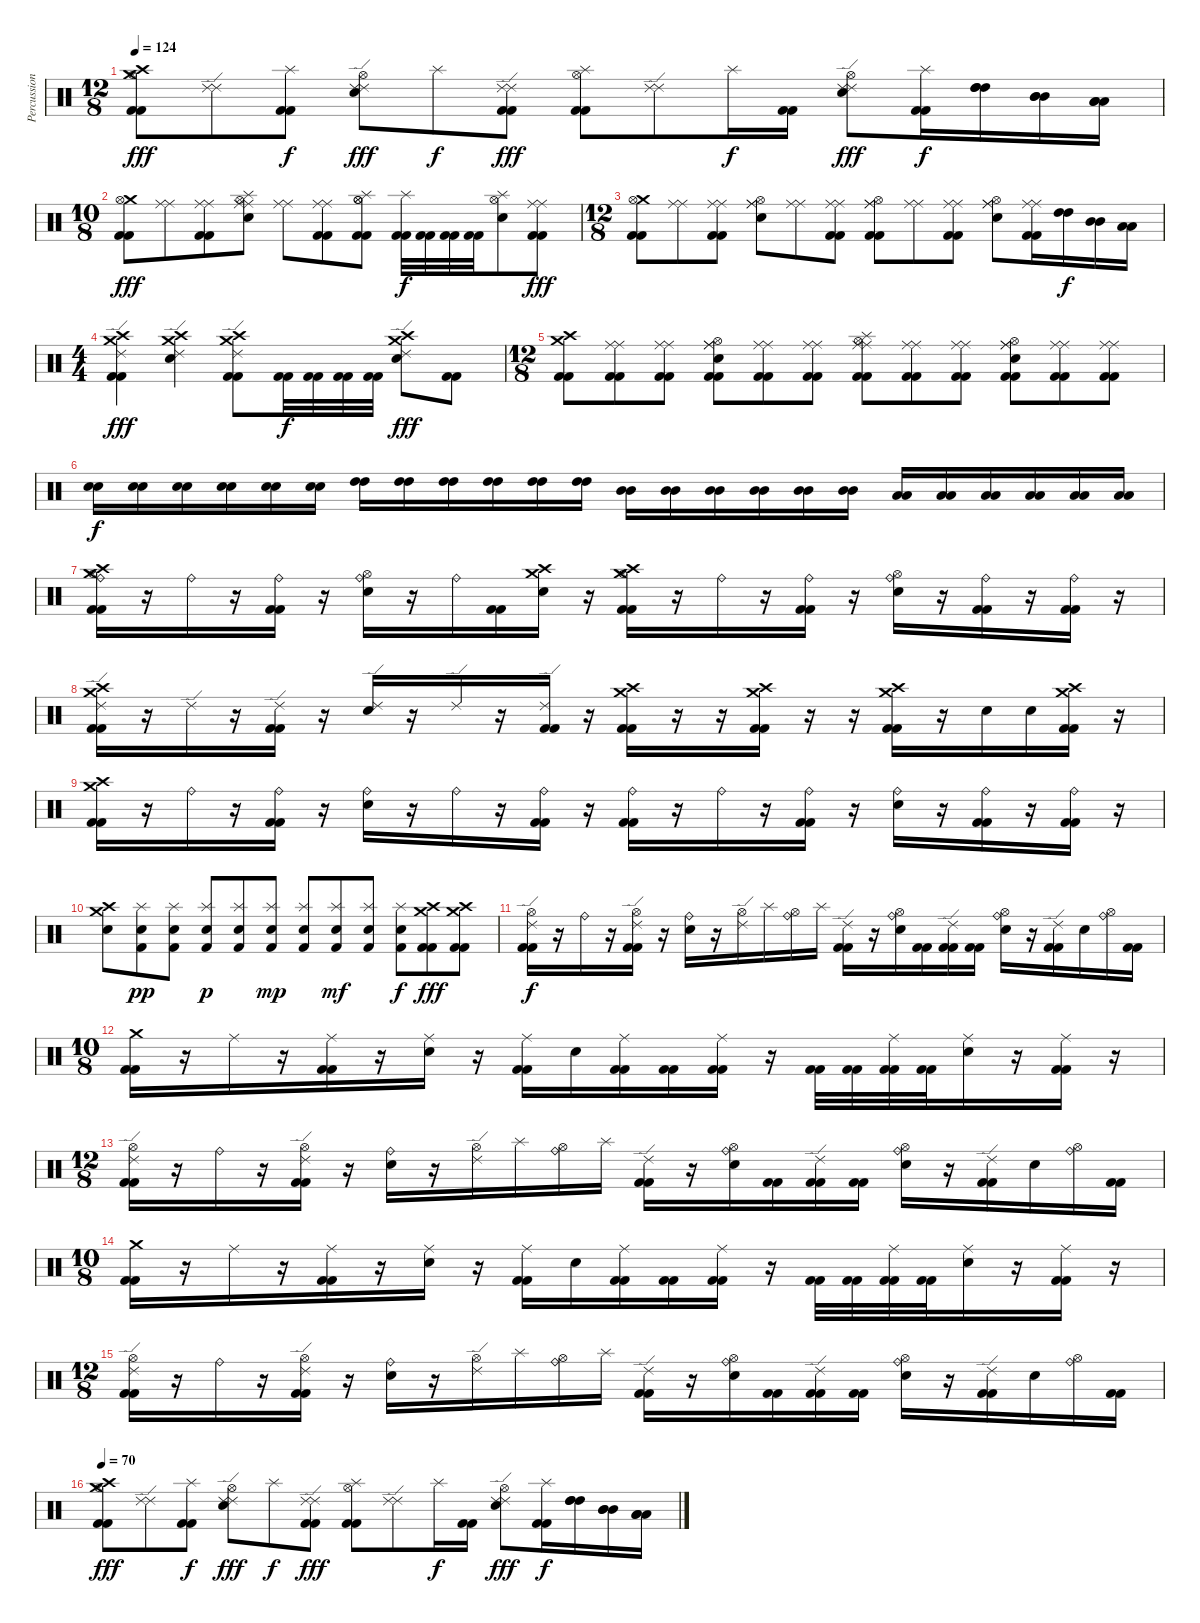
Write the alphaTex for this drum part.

\track ("Percussioni" "Percussion") {instrument percussion}
\staff {score}
\articulation defaults
\ts (12 8)
\tempo 124
\clef neutral
\ks c
("Crash medium (hit)" "Crash high (hit)" "Hi-Hat (open)" "Kick (hit) 2" "Kick (hit) 2").8{dy fff} ("Ride (edge) 2" "Ride (edge) 2").8 ("Splash (hit)" "Kick (hit) 2" "Kick (hit) 2").8{dy f} ("Ride (edge) 2" "Snare (hit) 2" "Hi-Hat (open)" "Ride (edge) 2").8{dy fff} "Splash (hit)".8{dy f} ("Ride (edge) 2" "Ride (edge) 2" "Kick (hit) 2" "Kick (hit) 2").8{dy fff} ("Splash (hit)" "Hi-Hat (open)" "Kick (hit) 2" "Kick (hit) 2").8 ("Ride (edge) 2" "Ride (edge) 2").8 "Splash (hit)".16{dy f} ("Kick (hit) 2" "Kick (hit) 2").16 ("Ride (edge) 2" "Hi-Hat (open)" "Ride (edge) 2" "Snare (hit) 2").8{dy fff} ("Splash (hit)" "Kick (hit) 2" "Kick (hit) 2").16{dy f} ("High Tom (hit)" "High Tom (hit)" "High Tom (hit)").16 ("Mid Tom (hit)" "Mid Tom (hit)" "Mid Tom (hit)").16 ("Low Tom (hit)" "Low Tom (hit)" "Low Tom (hit)").16 |
\ts (10 8)
("Crash medium (hit)" "Hi-Hat (open)" "Kick (hit) 2" "Kick (hit) 2").8{dy fff} ("Ride (middle)" "Ride (middle)").8 ("Ride (middle)" "Ride (middle)" "Kick (hit) 2" "Kick (hit) 2").8 ("Ride (middle)" "Splash (hit)" "Snare (hit) 2" "Hi-Hat (open)" "Ride (middle)").8 ("Ride (middle)" "Ride (middle)").8 ("Ride (middle)" "Ride (middle)" "Kick (hit) 2" "Kick (hit) 2").8 ("Splash (hit)" "Hi-Hat (open)" "Hi-Hat (open)" "Kick (hit) 2" "Kick (hit) 2").8 ("Splash (hit)" "Kick (hit) 2" "Kick (hit) 2").32{dy f} ("Kick (hit) 2" "Kick (hit) 2").32 ("Kick (hit) 2" "Kick (hit) 2").32 ("Kick (hit) 2" "Kick (hit) 2").32 ("Splash (hit)" "Hi-Hat (open)" "Snare (hit) 2").8 ("Ride (middle)" "Ride (middle)" "Kick (hit) 2" "Kick (hit) 2").8{dy fff} |
\ts (12 8)
("Crash medium (hit)" "Hi-Hat (open)" "Kick (hit) 2" "Kick (hit) 2").8 ("Ride (middle)" "Ride (middle)").8 ("Ride (middle)" "Ride (middle)" "Kick (hit) 2" "Kick (hit) 2").8 ("Ride (middle)" "Snare (hit) 2" "Hi-Hat (open)" "Ride (middle)").8 ("Ride (middle)" "Ride (middle)").8 ("Ride (middle)" "Ride (middle)" "Kick (hit) 2" "Kick (hit) 2").8 ("Ride (middle)" "Hi-Hat (open)" "Ride (middle)" "Kick (hit) 2" "Kick (hit) 2").8 ("Ride (middle)" "Ride (middle)").8 ("Ride (middle)" "Ride (middle)" "Kick (hit) 2" "Kick (hit) 2").8 ("Ride (middle)" "Snare (hit) 2" "Hi-Hat (open)" "Ride (middle)").8 ("Ride (middle)" "Ride (middle)" "Kick (hit) 2" "Kick (hit) 2").16 ("High Tom (hit)" "High Tom (hit)").16{dy f} ("Mid Tom (hit)" "Mid Tom (hit)").16 ("Low Tom (hit)" "Low Tom (hit)").16 |
\ts (4 4)
("Crash medium (hit)" "Ride (edge) 2" "Crash high (hit)" "Kick (hit) 2" "Kick (hit) 2").4{dy fff} ("Ride (edge) 2" "Snare (hit) 2" "Crash high (hit)" "Crash medium (hit)").4 ("Ride (edge) 2" "Crash medium (hit)" "Crash high (hit)" "Kick (hit) 2" "Kick (hit) 2").8 ("Kick (hit) 2" "Kick (hit) 2").32{dy f} ("Kick (hit) 2" "Kick (hit) 2").32 ("Kick (hit) 2" "Kick (hit) 2").32 ("Kick (hit) 2" "Kick (hit) 2").32 ("Ride (edge) 2" "Snare (hit) 2" "Crash high (hit)" "Crash medium (hit)").8{dy fff} ("Kick (hit) 2" "Kick (hit) 2").8 |
\ts (12 8)
("Crash medium (hit)" "Crash high (hit)" "Kick (hit) 2" "Kick (hit) 2").8 ("Ride (middle)" "Ride (middle)" "Kick (hit) 2" "Kick (hit) 2").8 ("Ride (middle)" "Ride (middle)" "Kick (hit) 2" "Kick (hit) 2").8 ("Ride (middle)" "Snare (hit) 2" "Hi-Hat (open)" "Ride (middle)" "Kick (hit) 2" "Kick (hit) 2").8 ("Ride (middle)" "Ride (middle)" "Kick (hit) 2" "Kick (hit) 2").8 ("Ride (middle)" "Ride (middle)" "Kick (hit) 2" "Kick (hit) 2").8 ("Ride (middle)" "Splash (hit)" "Hi-Hat (open)" "Ride (middle)" "Kick (hit) 2" "Kick (hit) 2").8 ("Ride (middle)" "Ride (middle)" "Kick (hit) 2" "Kick (hit) 2").8 ("Ride (middle)" "Ride (middle)" "Kick (hit) 2" "Kick (hit) 2").8 ("Ride (middle)" "Snare (hit) 2" "Hi-Hat (open)" "Ride (middle)" "Kick (hit) 2" "Kick (hit) 2").8 ("Ride (middle)" "Ride (middle)" "Kick (hit) 2" "Kick (hit) 2").8 ("Ride (middle)" "Ride (middle)" "Kick (hit) 2" "Kick (hit) 2").8 |
("Snare (hit) 2" "Snare (hit) 2").16{dy f} ("Snare (hit) 2" "Snare (hit) 2").16 ("Snare (hit) 2" "Snare (hit) 2").16 ("Snare (hit) 2" "Snare (hit) 2").16 ("Snare (hit) 2" "Snare (hit) 2").16 ("Snare (hit) 2" "Snare (hit) 2").16 ("High Tom (hit)" "High Tom (hit)").16 ("High Tom (hit)" "High Tom (hit)").16 ("High Tom (hit)" "High Tom (hit)").16 ("High Tom (hit)" "High Tom (hit)").16 ("High Tom (hit)" "High Tom (hit)").16 ("High Tom (hit)" "High Tom (hit)").16 ("Mid Tom (hit)" "Mid Tom (hit)").16 ("Mid Tom (hit)" "Mid Tom (hit)").16 ("Mid Tom (hit)" "Mid Tom (hit)").16 ("Mid Tom (hit)" "Mid Tom (hit)").16 ("Mid Tom (hit)" "Mid Tom (hit)").16 ("Mid Tom (hit)" "Mid Tom (hit)").16 ("Low Tom (hit)" "Low Tom (hit)").16 ("Low Tom (hit)" "Low Tom (hit)").16 ("Low Tom (hit)" "Low Tom (hit)").16 ("Low Tom (hit)" "Low Tom (hit)").16 ("Low Tom (hit)" "Low Tom (hit)").16 ("Low Tom (hit)" "Low Tom (hit)").16 |
("Crash medium (hit)" "Crash high (hit)" "Ride (bell)" "Hi-Hat (open)" "Kick (hit) 2" "Kick (hit) 2").16 r.16 "Ride (bell)".16 r.16 ("Ride (bell)" "Kick (hit) 2" "Kick (hit) 2").16 r.16 ("Ride (bell)" "Snare (hit) 2" "Hi-Hat (open)").16 r.16 "Ride (bell)".16 ("Kick (hit) 2" "Kick (hit) 2").16 ("Crash high (hit)" "Snare (hit) 2" "Crash medium (hit)").16 r.16 ("Crash high (hit)" "Crash medium (hit)" "Hi-Hat (open)" "Kick (hit) 2" "Kick (hit) 2").16 r.16 "Ride (bell)".16 r.16 ("Ride (bell)" "Kick (hit) 2" "Kick (hit) 2").16 r.16 ("Ride (bell)" "Snare (hit) 2" "Hi-Hat (open)").16 r.16 ("Ride (bell)" "Kick (hit) 2" "Kick (hit) 2").16 r.16 ("Ride (bell)" "Kick (hit) 2" "Kick (hit) 2").16 r.16 |
("Ride (edge) 2" "Crash medium (hit)" "Crash high (hit)" "Kick (hit) 2" "Kick (hit) 2").16 r.16 "Ride (edge) 2".16 r.16 ("Ride (edge) 2" "Kick (hit) 2" "Kick (hit) 2").16 r.16 ("Ride (edge) 2" "Snare (hit) 2").16 r.16 "Ride (edge) 2".16 r.16 ("Ride (edge) 2" "Kick (hit) 2" "Kick (hit) 2").16 r.16 ("Crash medium (hit)" "Crash high (hit)" "Kick (hit) 2" "Kick (hit) 2").16 r.16 r.16 ("Crash medium (hit)" "Crash high (hit)" "Kick (hit) 2" "Kick (hit) 2").16 r.16 r.16 ("Crash medium (hit)" "Crash high (hit)" "Kick (hit) 2" "Kick (hit) 2").16 r.16 "Snare (hit) 2".16 "Snare (hit) 2".16 ("Crash high (hit)" "Crash medium (hit)" "Kick (hit) 2" "Kick (hit) 2").16 r.16 |
("Crash high (hit)" "Crash medium (hit)" "Kick (hit) 2" "Kick (hit) 2").16 r.16 "Ride (bell)".16 r.16 ("Ride (bell)" "Kick (hit) 2" "Kick (hit) 2").16 r.16 ("Ride (bell)" "Snare (hit) 2").16 r.16 "Ride (bell)".16 r.16 ("Ride (bell)" "Kick (hit) 2" "Kick (hit) 2").16 r.16 ("Ride (bell)" "Kick (hit) 2" "Kick (hit) 2").16 r.16 "Ride (bell)".16 r.16 ("Ride (bell)" "Kick (hit) 2" "Kick (hit) 2").16 r.16 ("Ride (bell)" "Snare (hit) 2").16 r.16 ("Ride (bell)" "Kick (hit) 2" "Kick (hit) 2").16 r.16 ("Ride (bell)" "Kick (hit) 2" "Kick (hit) 2").16 r.16 |
("Crash high (hit)" "Crash medium (hit)" "Snare (hit) 2").8 ("Splash (hit)" "Snare (hit) 2" "Kick (hit) 2").8{dy pp} ("Splash (hit)" "Snare (hit) 2" "Kick (hit) 2").8 ("Splash (hit)" "Snare (hit) 2" "Kick (hit) 2").8{dy p} ("Splash (hit)" "Snare (hit) 2" "Kick (hit) 2").8 ("Splash (hit)" "Snare (hit) 2" "Kick (hit) 2").8{dy mp} ("Splash (hit)" "Snare (hit) 2" "Kick (hit) 2").8 ("Splash (hit)" "Snare (hit) 2" "Kick (hit) 2").8{dy mf} ("Splash (hit)" "Snare (hit) 2" "Kick (hit) 2").8 ("Splash (hit)" "Snare (hit) 2" "Kick (hit) 2").8{dy f} ("Crash high (hit)" "Crash medium (hit)" "Kick (hit) 2" "Kick (hit) 2").8{dy fff} ("Crash high (hit)" "Crash medium (hit)" "Kick (hit) 2" "Kick (hit) 2").8 |
("Ride (edge) 2" "Hi-Hat (open)" "Kick (hit) 2" "Kick (hit) 2").16{dy f} r.16 "Ride (bell)".16 r.16 ("Ride (edge) 2" "Hi-Hat (open)" "Kick (hit) 2" "Kick (hit) 2").16 r.16 ("Ride (bell)" "Snare (hit) 2").16 r.16 ("Ride (edge) 2" "Hi-Hat (open)").16 "Splash (hit)".16 ("Ride (bell)" "Hi-Hat (open)").16 "Splash (hit)".16 ("Ride (edge) 2" "Kick (hit) 2" "Kick (hit) 2").16 r.16 ("Ride (bell)" "Hi-Hat (open)" "Snare (hit) 2").16 ("Kick (hit) 2" "Kick (hit) 2").16 ("Ride (edge) 2" "Kick (hit) 2" "Kick (hit) 2").16 ("Kick (hit) 2" "Kick (hit) 2").16 ("Ride (bell)" "Hi-Hat (open)" "Snare (hit) 2").16 r.16 ("Ride (edge) 2" "Kick (hit) 2" "Kick (hit) 2").16 "Snare (hit) 2".16 ("Ride (bell)" "Hi-Hat (open)").16 ("Kick (hit) 2" "Kick (hit) 2").16 |
\ts (10 8)
("Crash medium (hit)" "Kick (hit) 2" "Kick (hit) 2").16 r.16 "Ride (middle)".16 r.16 ("Ride (middle)" "Kick (hit) 2" "Kick (hit) 2").16 r.16 ("Ride (middle)" "Snare (hit) 2").16 r.16 ("Ride (middle)" "Kick (hit) 2" "Kick (hit) 2").16 "Snare (hit) 2".16 ("Ride (middle)" "Kick (hit) 2" "Kick (hit) 2").16 ("Kick (hit) 2" "Kick (hit) 2").16 ("Ride (middle)" "Kick (hit) 2" "Kick (hit) 2").16 r.16 ("Kick (hit) 2" "Kick (hit) 2").32 ("Kick (hit) 2" "Kick (hit) 2").32 ("Ride (middle)" "Kick (hit) 2" "Kick (hit) 2").32 ("Kick (hit) 2" "Kick (hit) 2").32 ("Ride (middle)" "Snare (hit) 2").16 r.16 ("Ride (middle)" "Kick (hit) 2" "Kick (hit) 2").16 r.16 |
\ts (12 8)
("Ride (edge) 2" "Hi-Hat (open)" "Kick (hit) 2" "Kick (hit) 2").16 r.16 "Ride (bell)".16 r.16 ("Ride (edge) 2" "Hi-Hat (open)" "Kick (hit) 2" "Kick (hit) 2").16 r.16 ("Ride (bell)" "Snare (hit) 2").16 r.16 ("Ride (edge) 2" "Hi-Hat (open)").16 "Splash (hit)".16 ("Ride (bell)" "Hi-Hat (open)").16 "Splash (hit)".16 ("Ride (edge) 2" "Kick (hit) 2" "Kick (hit) 2").16 r.16 ("Ride (bell)" "Hi-Hat (open)" "Snare (hit) 2").16 ("Kick (hit) 2" "Kick (hit) 2").16 ("Ride (edge) 2" "Kick (hit) 2" "Kick (hit) 2").16 ("Kick (hit) 2" "Kick (hit) 2").16 ("Ride (bell)" "Hi-Hat (open)" "Snare (hit) 2").16 r.16 ("Ride (edge) 2" "Kick (hit) 2" "Kick (hit) 2").16 "Snare (hit) 2".16 ("Ride (bell)" "Hi-Hat (open)").16 ("Kick (hit) 2" "Kick (hit) 2").16 |
\ts (10 8)
("Crash medium (hit)" "Kick (hit) 2" "Kick (hit) 2").16 r.16 "Ride (middle)".16 r.16 ("Ride (middle)" "Kick (hit) 2" "Kick (hit) 2").16 r.16 ("Ride (middle)" "Snare (hit) 2").16 r.16 ("Ride (middle)" "Kick (hit) 2" "Kick (hit) 2").16 "Snare (hit) 2".16 ("Ride (middle)" "Kick (hit) 2" "Kick (hit) 2").16 ("Kick (hit) 2" "Kick (hit) 2").16 ("Ride (middle)" "Kick (hit) 2" "Kick (hit) 2").16 r.16 ("Kick (hit) 2" "Kick (hit) 2").32 ("Kick (hit) 2" "Kick (hit) 2").32 ("Ride (middle)" "Kick (hit) 2" "Kick (hit) 2").32 ("Kick (hit) 2" "Kick (hit) 2").32 ("Ride (middle)" "Snare (hit) 2").16 r.16 ("Ride (middle)" "Kick (hit) 2" "Kick (hit) 2").16 r.16 |
\ts (12 8)
("Ride (edge) 2" "Hi-Hat (open)" "Kick (hit) 2" "Kick (hit) 2").16 r.16 "Ride (bell)".16 r.16 ("Ride (edge) 2" "Hi-Hat (open)" "Kick (hit) 2" "Kick (hit) 2").16 r.16 ("Ride (bell)" "Snare (hit) 2").16 r.16 ("Ride (edge) 2" "Hi-Hat (open)").16 "Splash (hit)".16 ("Ride (bell)" "Hi-Hat (open)").16 "Splash (hit)".16 ("Ride (edge) 2" "Kick (hit) 2" "Kick (hit) 2").16 r.16 ("Ride (bell)" "Hi-Hat (open)" "Snare (hit) 2").16 ("Kick (hit) 2" "Kick (hit) 2").16 ("Ride (edge) 2" "Kick (hit) 2" "Kick (hit) 2").16 ("Kick (hit) 2" "Kick (hit) 2").16 ("Ride (bell)" "Hi-Hat (open)" "Snare (hit) 2").16 r.16 ("Ride (edge) 2" "Kick (hit) 2" "Kick (hit) 2").16 "Snare (hit) 2".16 ("Ride (bell)" "Hi-Hat (open)").16 ("Kick (hit) 2" "Kick (hit) 2").16 |
\tempo 70
("Crash medium (hit)" "Crash high (hit)" "Hi-Hat (open)" "Kick (hit) 2" "Kick (hit) 2").8{dy fff} ("Ride (edge) 2" "Ride (edge) 2").8 ("Splash (hit)" "Kick (hit) 2" "Kick (hit) 2").8{dy f} ("Ride (edge) 2" "Snare (hit) 2" "Hi-Hat (open)" "Ride (edge) 2").8{dy fff} "Splash (hit)".8{dy f} ("Ride (edge) 2" "Ride (edge) 2" "Kick (hit) 2" "Kick (hit) 2").8{dy fff} ("Splash (hit)" "Hi-Hat (open)" "Kick (hit) 2" "Kick (hit) 2").8 ("Ride (edge) 2" "Ride (edge) 2").8 "Splash (hit)".16{dy f} ("Kick (hit) 2" "Kick (hit) 2").16 ("Ride (edge) 2" "Hi-Hat (open)" "Ride (edge) 2" "Snare (hit) 2").8{dy fff} ("Splash (hit)" "Kick (hit) 2" "Kick (hit) 2").16{dy f} ("High Tom (hit)" "High Tom (hit)" "High Tom (hit)").16 ("Mid Tom (hit)" "Mid Tom (hit)" "Mid Tom (hit)").16 ("Low Tom (hit)" "Low Tom (hit)" "Low Tom (hit)").16
